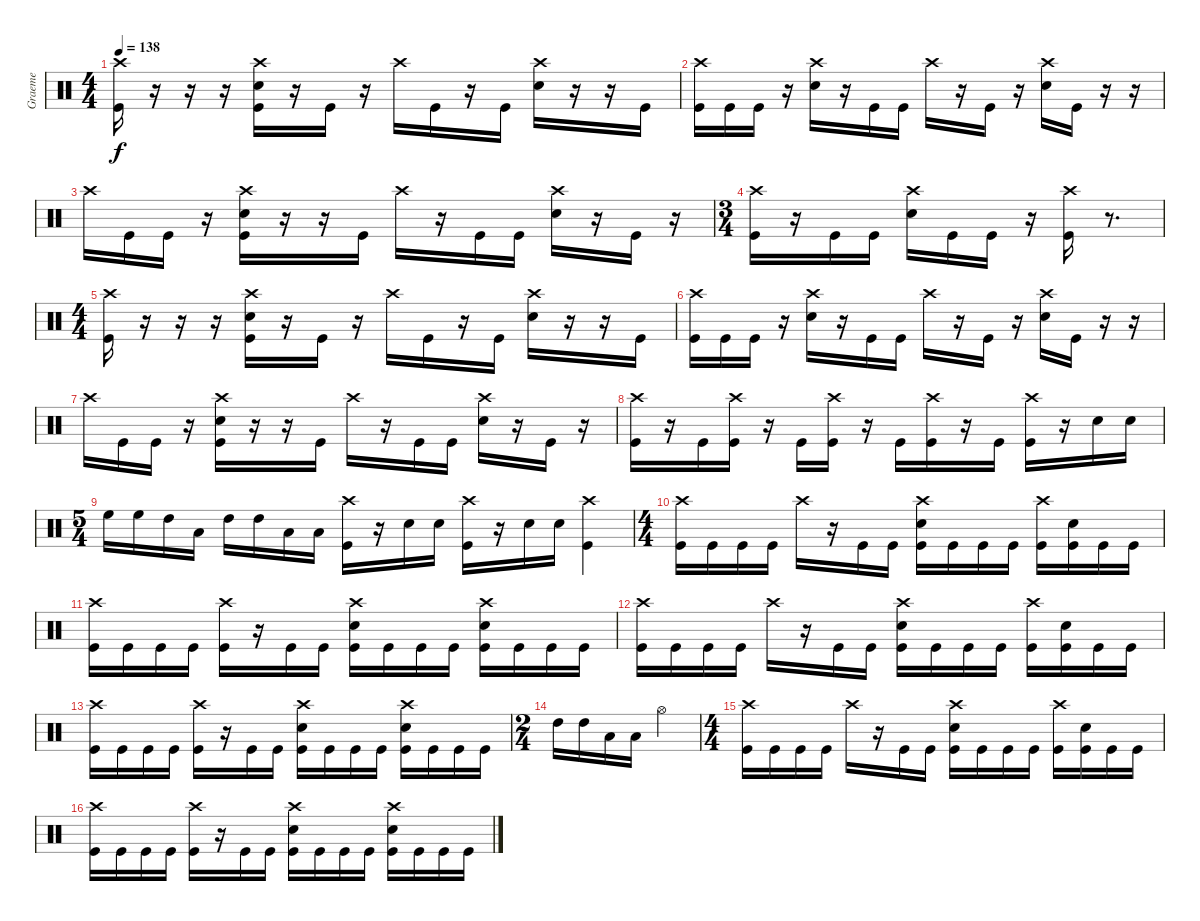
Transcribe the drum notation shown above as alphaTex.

\track ("Graeme" "Graeme") {instrument percussion}
\staff {score}
\articulation defaults
\ts (4 4)
\tempo 138
\clef neutral
\ks c
("Crash high (hit)" "Kick (hit)").16{dy f} r.16 r.16 r.16 ("Crash high (hit)" "Snare (hit) 2" "Kick (hit)").16 r.16 "Kick (hit)".16 r.16 "Crash high (hit)".16 "Kick (hit)".16 r.16 "Kick (hit)".16 ("Crash high (hit)" "Snare (hit) 2").16 r.16 r.16 "Kick (hit)".16 |
("Crash high (hit)" "Kick (hit)").16 "Kick (hit)".16 "Kick (hit)".16 r.16 ("Crash high (hit)" "Snare (hit) 2").16 r.16 "Kick (hit)".16 "Kick (hit)".16 "Crash high (hit)".16 r.16 "Kick (hit)".16 r.16 ("Crash high (hit)" "Snare (hit) 2").16 "Kick (hit)".16 r.16 r.16 |
"Crash high (hit)".16 "Kick (hit)".16 "Kick (hit)".16 r.16 ("Crash high (hit)" "Snare (hit) 2" "Kick (hit)").16 r.16 r.16 "Kick (hit)".16 "Crash high (hit)".16 r.16 "Kick (hit)".16 "Kick (hit)".16 ("Crash high (hit)" "Snare (hit) 2").16 r.16 "Kick (hit)".16 r.16 |
\ts (3 4)
("Crash high (hit)" "Kick (hit)").16 r.16 "Kick (hit)".16 "Kick (hit)".16 ("Crash high (hit)" "Snare (hit) 2").16 "Kick (hit)".16 "Kick (hit)".16 r.16 ("Crash high (hit)" "Kick (hit)").16 r.8{d} |
\ts (4 4)
("Crash high (hit)" "Kick (hit)").16 r.16 r.16 r.16 ("Crash high (hit)" "Snare (hit) 2" "Kick (hit)").16 r.16 "Kick (hit)".16 r.16 "Crash high (hit)".16 "Kick (hit)".16 r.16 "Kick (hit)".16 ("Crash high (hit)" "Snare (hit) 2").16 r.16 r.16 "Kick (hit)".16 |
("Crash high (hit)" "Kick (hit)").16 "Kick (hit)".16 "Kick (hit)".16 r.16 ("Crash high (hit)" "Snare (hit) 2").16 r.16 "Kick (hit)".16 "Kick (hit)".16 "Crash high (hit)".16 r.16 "Kick (hit)".16 r.16 ("Crash high (hit)" "Snare (hit) 2").16 "Kick (hit)".16 r.16 r.16 |
"Crash high (hit)".16 "Kick (hit)".16 "Kick (hit)".16 r.16 ("Crash high (hit)" "Snare (hit) 2" "Kick (hit)").16 r.16 r.16 "Kick (hit)".16 "Crash high (hit)".16 r.16 "Kick (hit)".16 "Kick (hit)".16 ("Crash high (hit)" "Snare (hit) 2").16 r.16 "Kick (hit)".16 r.16 |
("Crash high (hit)" "Kick (hit)").16 r.16 "Kick (hit)".16 ("Crash high (hit)" "Kick (hit)").16 r.16 "Kick (hit)".16 ("Crash high (hit)" "Kick (hit)").16 r.16 "Kick (hit)".16 ("Crash high (hit)" "Kick (hit)").16 r.16 "Kick (hit)".16 ("Crash high (hit)" "Kick (hit)").16 r.16 "Snare (hit) 2".16 "Snare (hit) 2".16 |
\ts (5 4)
"High Floor Tom (hit)".16 "High Floor Tom (hit)".16 "High Tom (hit)".16 "Low Floor Tom (hit)".16 "High Tom (hit)".16 "High Tom (hit)".16 "Low Floor Tom (hit)".16 "Low Floor Tom (hit)".16 ("Crash high (hit)" "Kick (hit)").16 r.16 "Snare (hit) 2".16 "Snare (hit) 2".16 ("Crash high (hit)" "Kick (hit)").16 r.16 "Snare (hit) 2".16 "Snare (hit) 2".16 ("Crash high (hit)" "Kick (hit)").4 |
\ts (4 4)
("Crash high (hit)" "Kick (hit)").16 "Kick (hit)".16 "Kick (hit)".16 "Kick (hit)".16 "Crash high (hit)".16 r.16 "Kick (hit)".16 "Kick (hit)".16 ("Crash high (hit)" "Snare (hit) 2" "Kick (hit)").16 "Kick (hit)".16 "Kick (hit)".16 "Kick (hit)".16 ("Crash high (hit)" "Kick (hit)").16 ("Snare (hit) 2" "Kick (hit)").16 "Kick (hit)".16 "Kick (hit)".16 |
("Crash high (hit)" "Kick (hit)").16 "Kick (hit)".16 "Kick (hit)".16 "Kick (hit)".16 ("Crash high (hit)" "Kick (hit)").16 r.16 "Kick (hit)".16 "Kick (hit)".16 ("Crash high (hit)" "Snare (hit) 2" "Kick (hit)").16 "Kick (hit)".16 "Kick (hit)".16 "Kick (hit)".16 ("Crash high (hit)" "Snare (hit) 2" "Kick (hit)").16 "Kick (hit)".16 "Kick (hit)".16 "Kick (hit)".16 |
("Crash high (hit)" "Kick (hit)").16 "Kick (hit)".16 "Kick (hit)".16 "Kick (hit)".16 "Crash high (hit)".16 r.16 "Kick (hit)".16 "Kick (hit)".16 ("Crash high (hit)" "Snare (hit) 2" "Kick (hit)").16 "Kick (hit)".16 "Kick (hit)".16 "Kick (hit)".16 ("Crash high (hit)" "Kick (hit)").16 ("Snare (hit) 2" "Kick (hit)").16 "Kick (hit)".16 "Kick (hit)".16 |
("Crash high (hit)" "Kick (hit)").16 "Kick (hit)".16 "Kick (hit)".16 "Kick (hit)".16 ("Crash high (hit)" "Kick (hit)").16 r.16 "Kick (hit)".16 "Kick (hit)".16 ("Crash high (hit)" "Snare (hit) 2" "Kick (hit)").16 "Kick (hit)".16 "Kick (hit)".16 "Kick (hit)".16 ("Crash high (hit)" "Snare (hit) 2" "Kick (hit)").16 "Kick (hit)".16 "Kick (hit)".16 "Kick (hit)".16 |
\ts (2 4)
"High Tom (hit)".16 "High Tom (hit)".16 "Low Floor Tom (hit)".16 "Low Floor Tom (hit)".16 "Hi-Hat (open)".4 |
\ts (4 4)
("Crash high (hit)" "Kick (hit)").16 "Kick (hit)".16 "Kick (hit)".16 "Kick (hit)".16 "Crash high (hit)".16 r.16 "Kick (hit)".16 "Kick (hit)".16 ("Crash high (hit)" "Snare (hit) 2" "Kick (hit)").16 "Kick (hit)".16 "Kick (hit)".16 "Kick (hit)".16 ("Crash high (hit)" "Kick (hit)").16 ("Snare (hit) 2" "Kick (hit)").16 "Kick (hit)".16 "Kick (hit)".16 |
("Crash high (hit)" "Kick (hit)").16 "Kick (hit)".16 "Kick (hit)".16 "Kick (hit)".16 ("Crash high (hit)" "Kick (hit)").16 r.16 "Kick (hit)".16 "Kick (hit)".16 ("Crash high (hit)" "Snare (hit) 2" "Kick (hit)").16 "Kick (hit)".16 "Kick (hit)".16 "Kick (hit)".16 ("Crash high (hit)" "Snare (hit) 2" "Kick (hit)").16 "Kick (hit)".16 "Kick (hit)".16 "Kick (hit)".16
